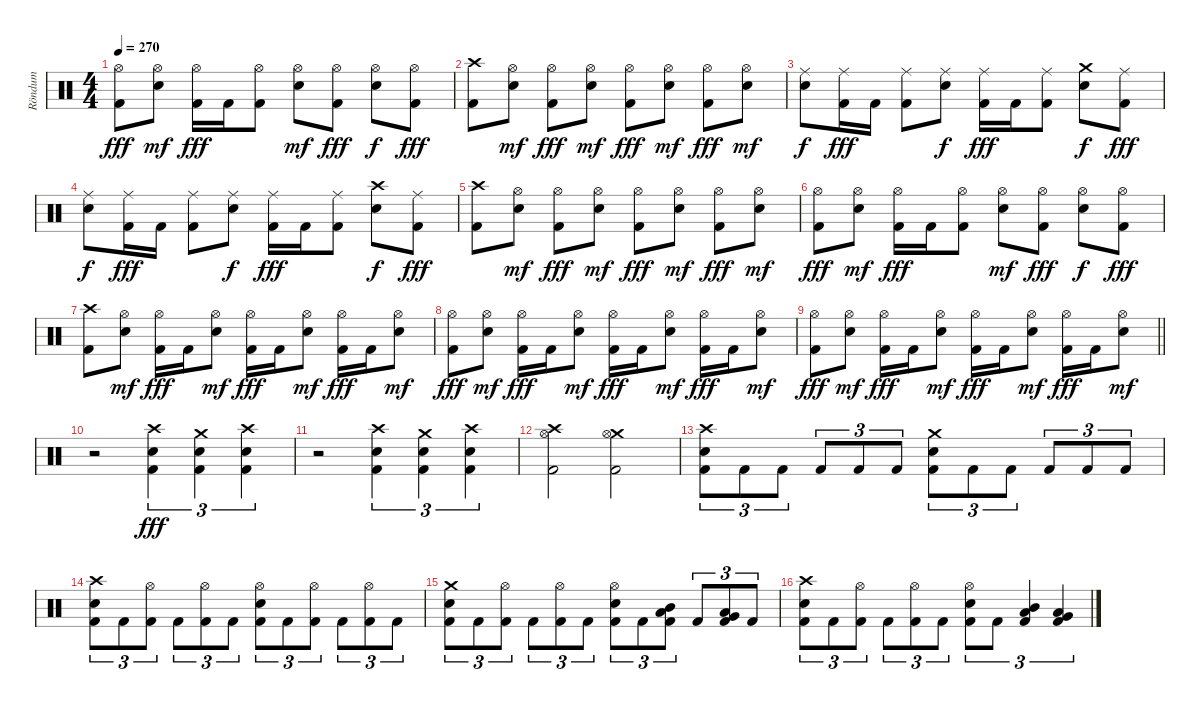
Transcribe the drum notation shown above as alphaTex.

\track ("Röndum" "Röndum") {instrument percussion}
\staff {score}
\articulation defaults
\ts (4 4)
\tempo 270
\clef neutral
\ks c
("Hi-Hat (open)" "Kick (hit) 2").8{dy fff} ("Hi-Hat (open)" "Snare (hit) 2").8{dy mf} ("Hi-Hat (open)" "Kick (hit) 2").16{dy fff} "Kick (hit) 2".16 ("Hi-Hat (open)" "Kick (hit) 2").8 ("Hi-Hat (open)" "Snare (hit) 2").8{dy mf} ("Hi-Hat (open)" "Kick (hit) 2").8{dy fff} ("Hi-Hat (open)" "Snare (hit) 2").8{dy f} ("Hi-Hat (open)" "Kick (hit) 2").8{dy fff} |
("Crash high (hit)" "Kick (hit) 2").8 ("Hi-Hat (open)" "Snare (hit) 2").8{dy mf} ("Hi-Hat (open)" "Kick (hit) 2").8{dy fff} ("Hi-Hat (open)" "Snare (hit) 2").8{dy mf} ("Hi-Hat (open)" "Kick (hit) 2").8{dy fff} ("Hi-Hat (open)" "Snare (hit) 2").8{dy mf} ("Hi-Hat (open)" "Kick (hit) 2").8{dy fff} ("Hi-Hat (open)" "Snare (hit) 2").8{dy mf} |
("Ride (middle)" "Snare (hit) 2").8{dy f} ("Ride (middle)" "Kick (hit) 2").16{dy fff} "Kick (hit) 2".16 ("Ride (middle)" "Kick (hit) 2").8 ("Ride (middle)" "Snare (hit) 2").8{dy f} ("Ride (middle)" "Kick (hit) 2").16{dy fff} "Kick (hit) 2".16 ("Ride (middle)" "Kick (hit) 2").8 ("Crash medium (hit)" "Snare (hit) 2").8{dy f} ("Ride (middle)" "Kick (hit) 2").8{dy fff} |
("Ride (middle)" "Snare (hit) 2").8{dy f} ("Ride (middle)" "Kick (hit) 2").16{dy fff} "Kick (hit) 2".16 ("Ride (middle)" "Kick (hit) 2").8 ("Ride (middle)" "Snare (hit) 2").8{dy f} ("Ride (middle)" "Kick (hit) 2").16{dy fff} "Kick (hit) 2".16 ("Ride (middle)" "Kick (hit) 2").8 ("Crash high (hit)" "Snare (hit) 2").8{dy f} ("Ride (middle)" "Kick (hit) 2").8{dy fff} |
("Crash high (hit)" "Kick (hit) 2").8 ("Hi-Hat (open)" "Snare (hit) 2").8{dy mf} ("Hi-Hat (open)" "Kick (hit) 2").8{dy fff} ("Hi-Hat (open)" "Snare (hit) 2").8{dy mf} ("Hi-Hat (open)" "Kick (hit) 2").8{dy fff} ("Hi-Hat (open)" "Snare (hit) 2").8{dy mf} ("Hi-Hat (open)" "Kick (hit) 2").8{dy fff} ("Hi-Hat (open)" "Snare (hit) 2").8{dy mf} |
("Hi-Hat (open)" "Kick (hit) 2").8{dy fff} ("Hi-Hat (open)" "Snare (hit) 2").8{dy mf} ("Hi-Hat (open)" "Kick (hit) 2").16{dy fff} "Kick (hit) 2".16 ("Hi-Hat (open)" "Kick (hit) 2").8 ("Hi-Hat (open)" "Snare (hit) 2").8{dy mf} ("Hi-Hat (open)" "Kick (hit) 2").8{dy fff} ("Hi-Hat (open)" "Snare (hit) 2").8{dy f} ("Hi-Hat (open)" "Kick (hit) 2").8{dy fff} |
("Crash high (hit)" "Kick (hit) 2").8 ("Hi-Hat (open)" "Snare (hit) 2").8{dy mf} ("Hi-Hat (open)" "Kick (hit) 2").16{dy fff} "Kick (hit) 2".16 ("Hi-Hat (open)" "Snare (hit) 2").8{dy mf} ("Hi-Hat (open)" "Kick (hit) 2").16{dy fff} "Kick (hit) 2".16 ("Hi-Hat (open)" "Snare (hit) 2").8{dy mf} ("Hi-Hat (open)" "Kick (hit) 2").16{dy fff} "Kick (hit) 2".16 ("Hi-Hat (open)" "Snare (hit) 2").8{dy mf} |
("Hi-Hat (open)" "Kick (hit) 2").8{dy fff} ("Hi-Hat (open)" "Snare (hit) 2").8{dy mf} ("Hi-Hat (open)" "Kick (hit) 2").16{dy fff} "Kick (hit) 2".16 ("Hi-Hat (open)" "Snare (hit) 2").8{dy mf} ("Hi-Hat (open)" "Kick (hit) 2").16{dy fff} "Kick (hit) 2".16 ("Hi-Hat (open)" "Snare (hit) 2").8{dy mf} ("Hi-Hat (open)" "Kick (hit) 2").16{dy fff} "Kick (hit) 2".16 ("Hi-Hat (open)" "Snare (hit) 2").8{dy mf} |
\barLineRight lightlight
("Hi-Hat (open)" "Kick (hit) 2").8{dy fff} ("Hi-Hat (open)" "Snare (hit) 2").8{dy mf} ("Hi-Hat (open)" "Kick (hit) 2").16{dy fff} "Kick (hit) 2".16 ("Hi-Hat (open)" "Snare (hit) 2").8{dy mf} ("Hi-Hat (open)" "Kick (hit) 2").16{dy fff} "Kick (hit) 2".16 ("Hi-Hat (open)" "Snare (hit) 2").8{dy mf} ("Hi-Hat (open)" "Kick (hit) 2").16{dy fff} "Kick (hit) 2".16 ("Hi-Hat (open)" "Snare (hit) 2").8{dy mf} |
r.2 ("Crash high (hit)" "Snare (hit) 2" "Kick (hit) 2").4{tu (3 2) dy fff} ("Crash medium (hit)" "Snare (hit) 2" "Kick (hit) 2").4{tu (3 2)} ("Crash high (hit)" "Snare (hit) 2" "Kick (hit) 2").4{tu (3 2)} |
r.2 ("Crash high (hit)" "Snare (hit) 2" "Kick (hit) 2").4{tu (3 2)} ("Crash medium (hit)" "Snare (hit) 2" "Kick (hit) 2").4{tu (3 2)} ("Crash high (hit)" "Snare (hit) 2" "Kick (hit) 2").4{tu (3 2)} |
("Crash high (hit)" "Hi-Hat (open)" "Kick (hit) 2").2 ("Crash medium (hit)" "Hi-Hat (open)" "Kick (hit) 2").2 |
("Crash high (hit)" "Snare (hit) 2" "Kick (hit) 2").8{tu (3 2)} "Kick (hit) 2".8{tu (3 2)} "Kick (hit) 2".8{tu (3 2)} "Kick (hit) 2".8{tu (3 2)} "Kick (hit) 2".8{tu (3 2)} "Kick (hit) 2".8{tu (3 2)} ("Crash medium (hit)" "Snare (hit) 2" "Kick (hit) 2").8{tu (3 2)} "Kick (hit) 2".8{tu (3 2)} "Kick (hit) 2".8{tu (3 2)} "Kick (hit) 2".8{tu (3 2)} "Kick (hit) 2".8{tu (3 2)} "Kick (hit) 2".8{tu (3 2)} |
("Crash high (hit)" "Snare (hit) 2" "Kick (hit) 2").8{tu (3 2)} "Kick (hit) 2".8{tu (3 2)} ("Hi-Hat (open)" "Kick (hit) 2").8{tu (3 2)} "Kick (hit) 2".8{tu (3 2)} ("Hi-Hat (open)" "Kick (hit) 2").8{tu (3 2)} "Kick (hit) 2".8{tu (3 2)} ("Hi-Hat (open)" "Snare (hit) 2" "Kick (hit) 2").8{tu (3 2)} "Kick (hit) 2".8{tu (3 2)} ("Hi-Hat (open)" "Kick (hit) 2").8{tu (3 2)} "Kick (hit) 2".8{tu (3 2)} ("Hi-Hat (open)" "Kick (hit) 2").8{tu (3 2)} "Kick (hit) 2".8{tu (3 2)} |
("Crash medium (hit)" "Snare (hit) 2" "Kick (hit) 2").8{tu (3 2)} "Kick (hit) 2".8{tu (3 2)} ("Hi-Hat (open)" "Kick (hit) 2").8{tu (3 2)} "Kick (hit) 2".8{tu (3 2)} ("Hi-Hat (open)" "Kick (hit) 2").8{tu (3 2)} "Kick (hit) 2".8{tu (3 2)} ("Hi-Hat (open)" "Snare (hit) 2" "Kick (hit) 2").8{tu (3 2)} "Kick (hit) 2".8{tu (3 2)} ("Low Tom (hit)" "Mid Tom (hit)" "Kick (hit) 2").8{tu (3 2)} "Kick (hit) 2".8{tu (3 2)} ("Very Low Tom (hit)" "Low Tom (hit)" "Kick (hit) 2").8{tu (3 2)} "Kick (hit) 2".8{tu (3 2)} |
("Crash high (hit)" "Snare (hit) 2" "Kick (hit) 2").8{tu (3 2)} "Kick (hit) 2".8{tu (3 2)} ("Hi-Hat (open)" "Kick (hit) 2").8{tu (3 2)} "Kick (hit) 2".8{tu (3 2)} ("Hi-Hat (open)" "Kick (hit) 2").8{tu (3 2)} "Kick (hit) 2".8{tu (3 2)} ("Hi-Hat (open)" "Snare (hit) 2" "Kick (hit) 2").8{tu (3 2)} "Kick (hit) 2".8{tu (3 2)} ("Mid Tom (hit)" "Low Tom (hit)" "Kick (hit) 2").4{tu (3 2)} ("Low Tom (hit)" "Very Low Tom (hit)" "Kick (hit) 2").4{tu (3 2)}
